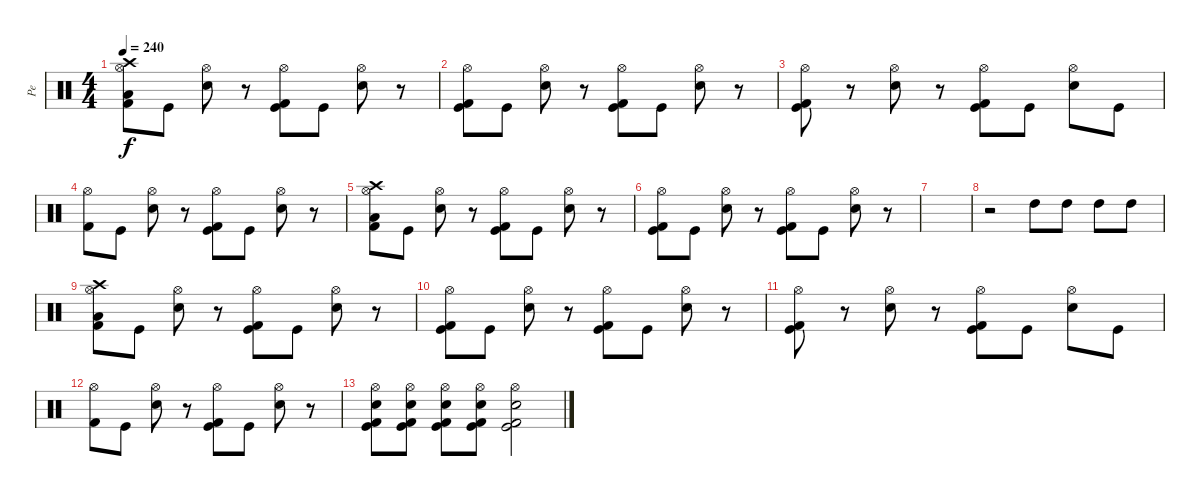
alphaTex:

\track ("Pe" "Pe") {instrument percussion}
\staff {score}
\articulation defaults
\ts (4 4)
\tempo 240
\clef neutral
\ks c
("Low Tom (hit)" "Hi-Hat (open)" "Kick (hit) 2" "Crash high (hit)").8{dy f} "Kick (hit)".8 ("Electric Snare (hit)" "Hi-Hat (open)").8 r.8 ("Kick (hit)" "Hi-Hat (open)" "Kick (hit) 2").8 "Kick (hit)".8 ("Electric Snare (hit)" "Hi-Hat (open)").8 r.8 |
("Kick (hit)" "Hi-Hat (open)" "Kick (hit) 2").8 "Kick (hit)".8 ("Electric Snare (hit)" "Hi-Hat (open)").8 r.8 ("Kick (hit)" "Hi-Hat (open)" "Kick (hit) 2").8 "Kick (hit)".8 ("Electric Snare (hit)" "Hi-Hat (open)").8 r.8 |
("Kick (hit)" "Hi-Hat (open)" "Kick (hit) 2").8 r.8 ("Electric Snare (hit)" "Hi-Hat (open)").8 r.8 ("Kick (hit)" "Hi-Hat (open)" "Kick (hit) 2").8 "Kick (hit)".8 ("Electric Snare (hit)" "Hi-Hat (open)").8 "Kick (hit)".8 |
("Hi-Hat (open)" "Kick (hit) 2").8 "Kick (hit)".8 ("Electric Snare (hit)" "Hi-Hat (open)").8 r.8 ("Kick (hit)" "Hi-Hat (open)" "Kick (hit) 2").8 "Kick (hit)".8 ("Electric Snare (hit)" "Hi-Hat (open)").8 r.8 |
("Low Tom (hit)" "Hi-Hat (open)" "Kick (hit) 2" "Crash high (hit)").8 "Kick (hit)".8 ("Electric Snare (hit)" "Hi-Hat (open)").8 r.8 ("Kick (hit)" "Hi-Hat (open)" "Kick (hit) 2").8 "Kick (hit)".8 ("Electric Snare (hit)" "Hi-Hat (open)").8 r.8 |
("Kick (hit)" "Hi-Hat (open)" "Kick (hit) 2").8 "Kick (hit)".8 ("Electric Snare (hit)" "Hi-Hat (open)").8 r.8 ("Kick (hit)" "Hi-Hat (open)" "Kick (hit) 2").8 "Kick (hit)".8 ("Electric Snare (hit)" "Hi-Hat (open)").8 r.8 |
|
r.2 "High Tom (hit)".8 "High Tom (hit)".8 "High Tom (hit)".8 "High Tom (hit)".8 |
("Low Tom (hit)" "Hi-Hat (open)" "Kick (hit) 2" "Crash high (hit)").8 "Kick (hit)".8 ("Electric Snare (hit)" "Hi-Hat (open)").8 r.8 ("Kick (hit)" "Hi-Hat (open)" "Kick (hit) 2").8 "Kick (hit)".8 ("Electric Snare (hit)" "Hi-Hat (open)").8 r.8 |
("Kick (hit)" "Hi-Hat (open)" "Kick (hit) 2").8 "Kick (hit)".8 ("Electric Snare (hit)" "Hi-Hat (open)").8 r.8 ("Kick (hit)" "Hi-Hat (open)" "Kick (hit) 2").8 "Kick (hit)".8 ("Electric Snare (hit)" "Hi-Hat (open)").8 r.8 |
("Kick (hit)" "Hi-Hat (open)" "Kick (hit) 2").8 r.8 ("Electric Snare (hit)" "Hi-Hat (open)").8 r.8 ("Kick (hit)" "Hi-Hat (open)" "Kick (hit) 2").8 "Kick (hit)".8 ("Electric Snare (hit)" "Hi-Hat (open)").8 "Kick (hit)".8 |
("Hi-Hat (open)" "Kick (hit) 2").8 "Kick (hit)".8 ("Electric Snare (hit)" "Hi-Hat (open)").8 r.8 ("Kick (hit)" "Hi-Hat (open)" "Kick (hit) 2").8 "Kick (hit)".8 ("Electric Snare (hit)" "Hi-Hat (open)").8 r.8 |
("Hi-Hat (open)" "Electric Snare (hit)" "Kick (hit)" "Kick (hit) 2").8 ("Hi-Hat (open)" "Electric Snare (hit)" "Kick (hit)" "Kick (hit) 2").8 ("Hi-Hat (open)" "Electric Snare (hit)" "Kick (hit)" "Kick (hit) 2").8 ("Hi-Hat (open)" "Electric Snare (hit)" "Kick (hit)" "Kick (hit) 2").8 ("Hi-Hat (open)" "Electric Snare (hit)" "Kick (hit)" "Kick (hit) 2").2
